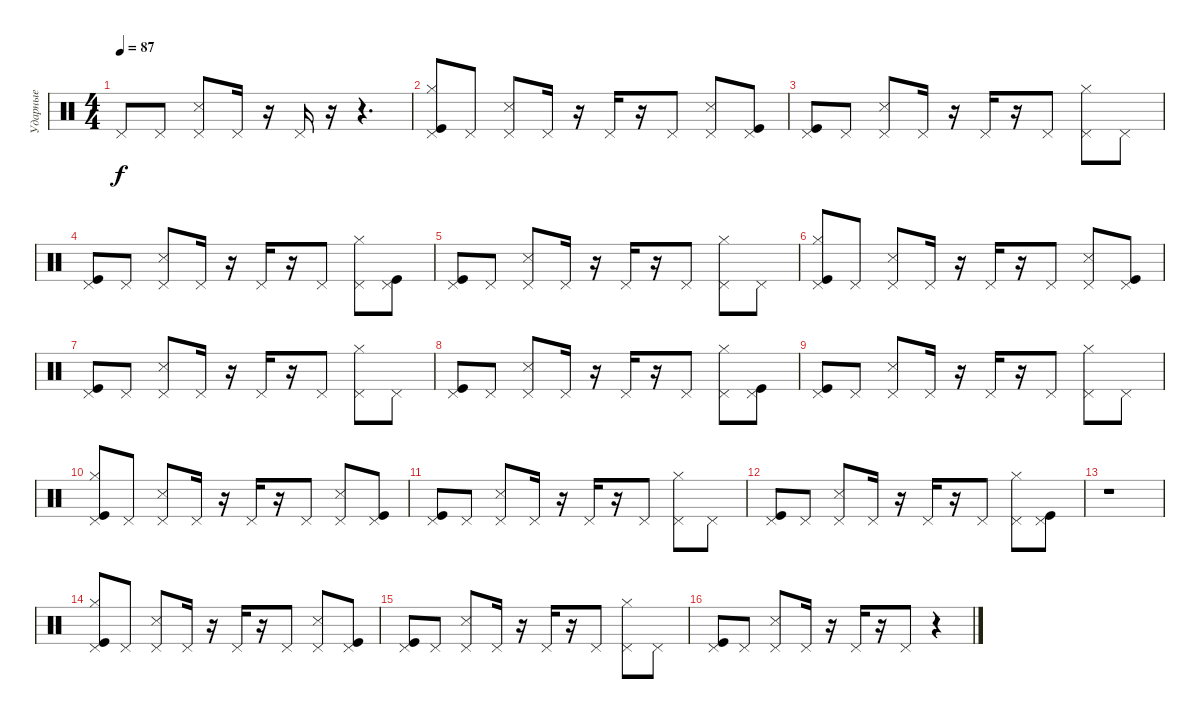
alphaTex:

\track ("Ударные" "Ударные") {instrument percussion}
\staff {score}
\articulation defaults
\ts (4 4)
\tempo 87
\clef neutral
\ks c "Pedal Hi-Hat (hit)".8{dy f} "Pedal Hi-Hat (hit)".8
("Snare (side stick) 3" "Pedal Hi-Hat (hit)").8 "Pedal Hi-Hat (hit)".16 r.16 "Pedal Hi-Hat (hit)".16 r.16 r.4{d} |
("Hi-Hat (closed)" "Kick (hit)" "Pedal Hi-Hat (hit)").8 "Pedal Hi-Hat (hit)".8 ("Snare (side stick) 3" "Pedal Hi-Hat (hit)").8 "Pedal Hi-Hat (hit)".16 r.16 "Pedal Hi-Hat (hit)".16 r.16 "Pedal Hi-Hat (hit)".8 ("Snare (side stick) 3" "Pedal Hi-Hat (hit)").8 ("Kick (hit)" "Pedal Hi-Hat (hit)").8 |
("Kick (hit)" "Pedal Hi-Hat (hit)").8 "Pedal Hi-Hat (hit)".8 ("Snare (side stick) 3" "Pedal Hi-Hat (hit)").8 "Pedal Hi-Hat (hit)".16 r.16 "Pedal Hi-Hat (hit)".16 r.16 "Pedal Hi-Hat (hit)".8 ("Pedal Hi-Hat (hit)" "Hi-Hat (closed)").8 "Pedal Hi-Hat (hit)".8 |
("Kick (hit)" "Pedal Hi-Hat (hit)").8 "Pedal Hi-Hat (hit)".8 ("Snare (side stick) 3" "Pedal Hi-Hat (hit)").8 "Pedal Hi-Hat (hit)".16 r.16 "Pedal Hi-Hat (hit)".16 r.16 "Pedal Hi-Hat (hit)".8 ("Pedal Hi-Hat (hit)" "Hi-Hat (closed)").8 ("Pedal Hi-Hat (hit)" "Kick (hit)").8 |
("Kick (hit)" "Pedal Hi-Hat (hit)").8 "Pedal Hi-Hat (hit)".8 ("Snare (side stick) 3" "Pedal Hi-Hat (hit)").8 "Pedal Hi-Hat (hit)".16 r.16 "Pedal Hi-Hat (hit)".16 r.16 "Pedal Hi-Hat (hit)".8 ("Pedal Hi-Hat (hit)" "Hi-Hat (closed)").8 "Pedal Hi-Hat (hit)".8 |
("Hi-Hat (closed)" "Kick (hit)" "Pedal Hi-Hat (hit)").8 "Pedal Hi-Hat (hit)".8 ("Snare (side stick) 3" "Pedal Hi-Hat (hit)").8 "Pedal Hi-Hat (hit)".16 r.16 "Pedal Hi-Hat (hit)".16 r.16 "Pedal Hi-Hat (hit)".8 ("Snare (side stick) 3" "Pedal Hi-Hat (hit)").8 ("Kick (hit)" "Pedal Hi-Hat (hit)").8 |
("Kick (hit)" "Pedal Hi-Hat (hit)").8 "Pedal Hi-Hat (hit)".8 ("Snare (side stick) 3" "Pedal Hi-Hat (hit)").8 "Pedal Hi-Hat (hit)".16 r.16 "Pedal Hi-Hat (hit)".16 r.16 "Pedal Hi-Hat (hit)".8 ("Pedal Hi-Hat (hit)" "Hi-Hat (closed)").8 "Pedal Hi-Hat (hit)".8 |
("Kick (hit)" "Pedal Hi-Hat (hit)").8 "Pedal Hi-Hat (hit)".8 ("Snare (side stick) 3" "Pedal Hi-Hat (hit)").8 "Pedal Hi-Hat (hit)".16 r.16 "Pedal Hi-Hat (hit)".16 r.16 "Pedal Hi-Hat (hit)".8 ("Pedal Hi-Hat (hit)" "Hi-Hat (closed)").8 ("Pedal Hi-Hat (hit)" "Kick (hit)").8 |
("Kick (hit)" "Pedal Hi-Hat (hit)").8 "Pedal Hi-Hat (hit)".8 ("Snare (side stick) 3" "Pedal Hi-Hat (hit)").8 "Pedal Hi-Hat (hit)".16 r.16 "Pedal Hi-Hat (hit)".16 r.16 "Pedal Hi-Hat (hit)".8 ("Pedal Hi-Hat (hit)" "Hi-Hat (closed)").8 "Pedal Hi-Hat (hit)".8 |
("Hi-Hat (closed)" "Kick (hit)" "Pedal Hi-Hat (hit)").8 "Pedal Hi-Hat (hit)".8 ("Snare (side stick) 3" "Pedal Hi-Hat (hit)").8 "Pedal Hi-Hat (hit)".16 r.16 "Pedal Hi-Hat (hit)".16 r.16 "Pedal Hi-Hat (hit)".8 ("Snare (side stick) 3" "Pedal Hi-Hat (hit)").8 ("Kick (hit)" "Pedal Hi-Hat (hit)").8 |
("Kick (hit)" "Pedal Hi-Hat (hit)").8 "Pedal Hi-Hat (hit)".8 ("Snare (side stick) 3" "Pedal Hi-Hat (hit)").8 "Pedal Hi-Hat (hit)".16 r.16 "Pedal Hi-Hat (hit)".16 r.16 "Pedal Hi-Hat (hit)".8 ("Pedal Hi-Hat (hit)" "Hi-Hat (closed)").8 "Pedal Hi-Hat (hit)".8 |
("Kick (hit)" "Pedal Hi-Hat (hit)").8 "Pedal Hi-Hat (hit)".8 ("Snare (side stick) 3" "Pedal Hi-Hat (hit)").8 "Pedal Hi-Hat (hit)".16 r.16 "Pedal Hi-Hat (hit)".16 r.16 "Pedal Hi-Hat (hit)".8 ("Pedal Hi-Hat (hit)" "Hi-Hat (closed)").8 ("Pedal Hi-Hat (hit)" "Kick (hit)").8 |
r.1 |
("Hi-Hat (closed)" "Kick (hit)" "Pedal Hi-Hat (hit)").8 "Pedal Hi-Hat (hit)".8 ("Snare (side stick) 3" "Pedal Hi-Hat (hit)").8 "Pedal Hi-Hat (hit)".16 r.16 "Pedal Hi-Hat (hit)".16 r.16 "Pedal Hi-Hat (hit)".8 ("Snare (side stick) 3" "Pedal Hi-Hat (hit)").8 ("Kick (hit)" "Pedal Hi-Hat (hit)").8 |
("Kick (hit)" "Pedal Hi-Hat (hit)").8 "Pedal Hi-Hat (hit)".8 ("Snare (side stick) 3" "Pedal Hi-Hat (hit)").8 "Pedal Hi-Hat (hit)".16 r.16 "Pedal Hi-Hat (hit)".16 r.16 "Pedal Hi-Hat (hit)".8 ("Pedal Hi-Hat (hit)" "Hi-Hat (closed)").8 "Pedal Hi-Hat (hit)".8 |
("Kick (hit)" "Pedal Hi-Hat (hit)").8 "Pedal Hi-Hat (hit)".8 ("Snare (side stick) 3" "Pedal Hi-Hat (hit)").8 "Pedal Hi-Hat (hit)".16 r.16 "Pedal Hi-Hat (hit)".16 r.16 "Pedal Hi-Hat (hit)".8 r.4
